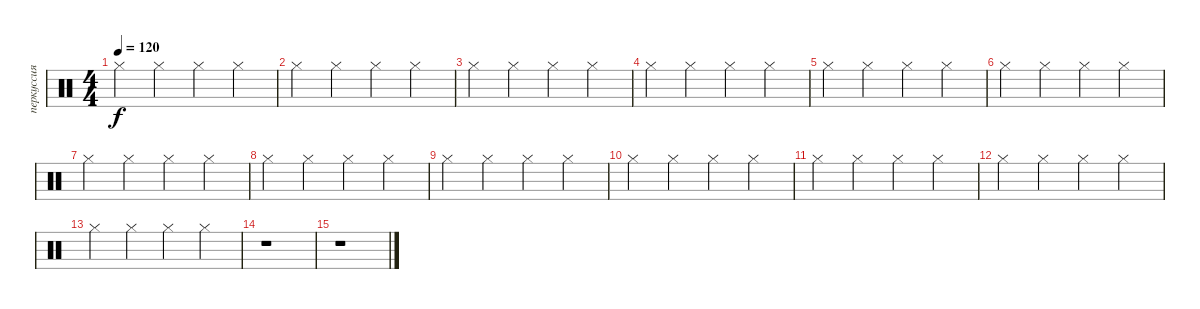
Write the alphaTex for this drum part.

\track ("перкуссия" "перкуссия") {instrument percussion}
\staff {score}
\articulation defaults
\ts (4 4)
\tempo 120
\clef neutral
\ks c "Hi-Hat (closed)".4{dy f} "Hi-Hat (closed)".4 "Hi-Hat (closed)".4 "Hi-Hat (closed)".4
|
"Hi-Hat (closed)".4 "Hi-Hat (closed)".4 "Hi-Hat (closed)".4 "Hi-Hat (closed)".4 |
"Hi-Hat (closed)".4 "Hi-Hat (closed)".4 "Hi-Hat (closed)".4 "Hi-Hat (closed)".4 |
"Hi-Hat (closed)".4 "Hi-Hat (closed)".4 "Hi-Hat (closed)".4 "Hi-Hat (closed)".4 |
"Hi-Hat (closed)".4 "Hi-Hat (closed)".4 "Hi-Hat (closed)".4 "Hi-Hat (closed)".4 |
"Hi-Hat (closed)".4 "Hi-Hat (closed)".4 "Hi-Hat (closed)".4 "Hi-Hat (closed)".4 |
"Hi-Hat (closed)".4 "Hi-Hat (closed)".4 "Hi-Hat (closed)".4 "Hi-Hat (closed)".4 |
"Hi-Hat (closed)".4 "Hi-Hat (closed)".4 "Hi-Hat (closed)".4 "Hi-Hat (closed)".4 |
"Hi-Hat (closed)".4 "Hi-Hat (closed)".4 "Hi-Hat (closed)".4 "Hi-Hat (closed)".4 |
"Hi-Hat (closed)".4 "Hi-Hat (closed)".4 "Hi-Hat (closed)".4 "Hi-Hat (closed)".4 |
"Hi-Hat (closed)".4 "Hi-Hat (closed)".4 "Hi-Hat (closed)".4 "Hi-Hat (closed)".4 |
"Hi-Hat (closed)".4 "Hi-Hat (closed)".4 "Hi-Hat (closed)".4 "Hi-Hat (closed)".4 |
"Hi-Hat (closed)".4 "Hi-Hat (closed)".4 "Hi-Hat (closed)".4 "Hi-Hat (closed)".4 |
r.1 |
r.1
